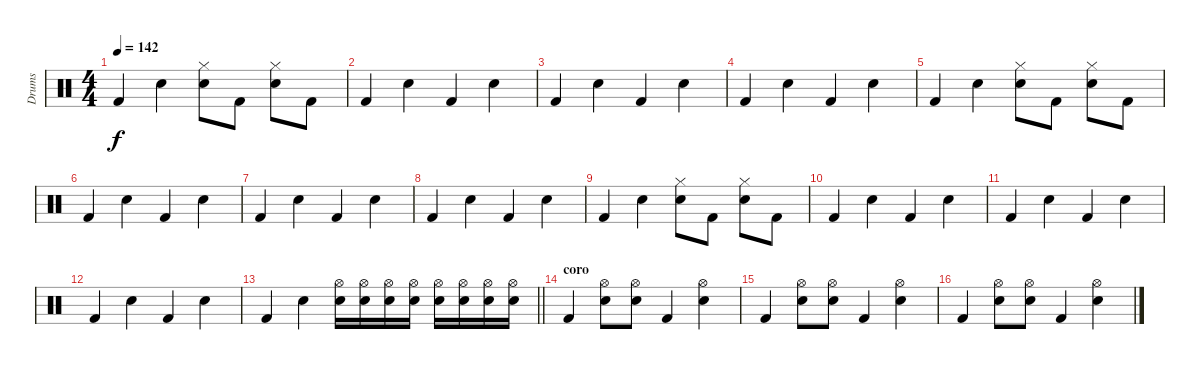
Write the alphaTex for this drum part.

\track ("Drums" "Drums") {instrument percussion}
\staff {score}
\articulation defaults
\ts (4 4)
\tempo 142
\clef neutral
\ks c "Kick (hit) 2".4{dy f} "Electric Snare (hit)".4
("Electric Snare (hit)" "Hi-Hat (closed)").8 "Kick (hit) 2".8 ("Electric Snare (hit)" "Hi-Hat (closed)").8 "Kick (hit) 2".8 |
"Kick (hit) 2".4 "Electric Snare (hit)".4 "Kick (hit) 2".4 "Electric Snare (hit)".4 |
"Kick (hit) 2".4 "Electric Snare (hit)".4 "Kick (hit) 2".4 "Electric Snare (hit)".4 |
"Kick (hit) 2".4 "Electric Snare (hit)".4 "Kick (hit) 2".4 "Electric Snare (hit)".4 |
"Kick (hit) 2".4 "Electric Snare (hit)".4 ("Electric Snare (hit)" "Hi-Hat (closed)").8 "Kick (hit) 2".8 ("Electric Snare (hit)" "Hi-Hat (closed)").8 "Kick (hit) 2".8 |
"Kick (hit) 2".4 "Electric Snare (hit)".4 "Kick (hit) 2".4 "Electric Snare (hit)".4 |
"Kick (hit) 2".4 "Electric Snare (hit)".4 "Kick (hit) 2".4 "Electric Snare (hit)".4 |
"Kick (hit) 2".4 "Electric Snare (hit)".4 "Kick (hit) 2".4 "Electric Snare (hit)".4 |
"Kick (hit) 2".4 "Electric Snare (hit)".4 ("Electric Snare (hit)" "Hi-Hat (closed)").8 "Kick (hit) 2".8 ("Electric Snare (hit)" "Hi-Hat (closed)").8 "Kick (hit) 2".8 |
"Kick (hit) 2".4 "Electric Snare (hit)".4 "Kick (hit) 2".4 "Electric Snare (hit)".4 |
"Kick (hit) 2".4 "Electric Snare (hit)".4 "Kick (hit) 2".4 "Electric Snare (hit)".4 |
"Kick (hit) 2".4 "Electric Snare (hit)".4 "Kick (hit) 2".4 "Electric Snare (hit)".4 |
\barLineRight lightlight "Kick (hit) 2".4 "Electric Snare (hit)".4
("Electric Snare (hit)" "Hi-Hat (open)").16 ("Electric Snare (hit)" "Hi-Hat (open)").16 ("Electric Snare (hit)" "Hi-Hat (open)").16 ("Electric Snare (hit)" "Hi-Hat (open)").16 ("Electric Snare (hit)" "Hi-Hat (open)").16 ("Electric Snare (hit)" "Hi-Hat (open)").16 ("Electric Snare (hit)" "Hi-Hat (open)").16 ("Electric Snare (hit)" "Hi-Hat (open)").16 |
\section ("" "coro")
"Kick (hit) 2".4 ("Electric Snare (hit)" "Hi-Hat (open)").8 ("Electric Snare (hit)" "Hi-Hat (open)").8 "Kick (hit) 2".4 ("Electric Snare (hit)" "Hi-Hat (open)").4 |
"Kick (hit) 2".4 ("Electric Snare (hit)" "Hi-Hat (open)").8 ("Electric Snare (hit)" "Hi-Hat (open)").8 "Kick (hit) 2".4 ("Electric Snare (hit)" "Hi-Hat (open)").4 |
"Kick (hit) 2".4 ("Electric Snare (hit)" "Hi-Hat (open)").8 ("Electric Snare (hit)" "Hi-Hat (open)").8 "Kick (hit) 2".4 ("Electric Snare (hit)" "Hi-Hat (open)").4
